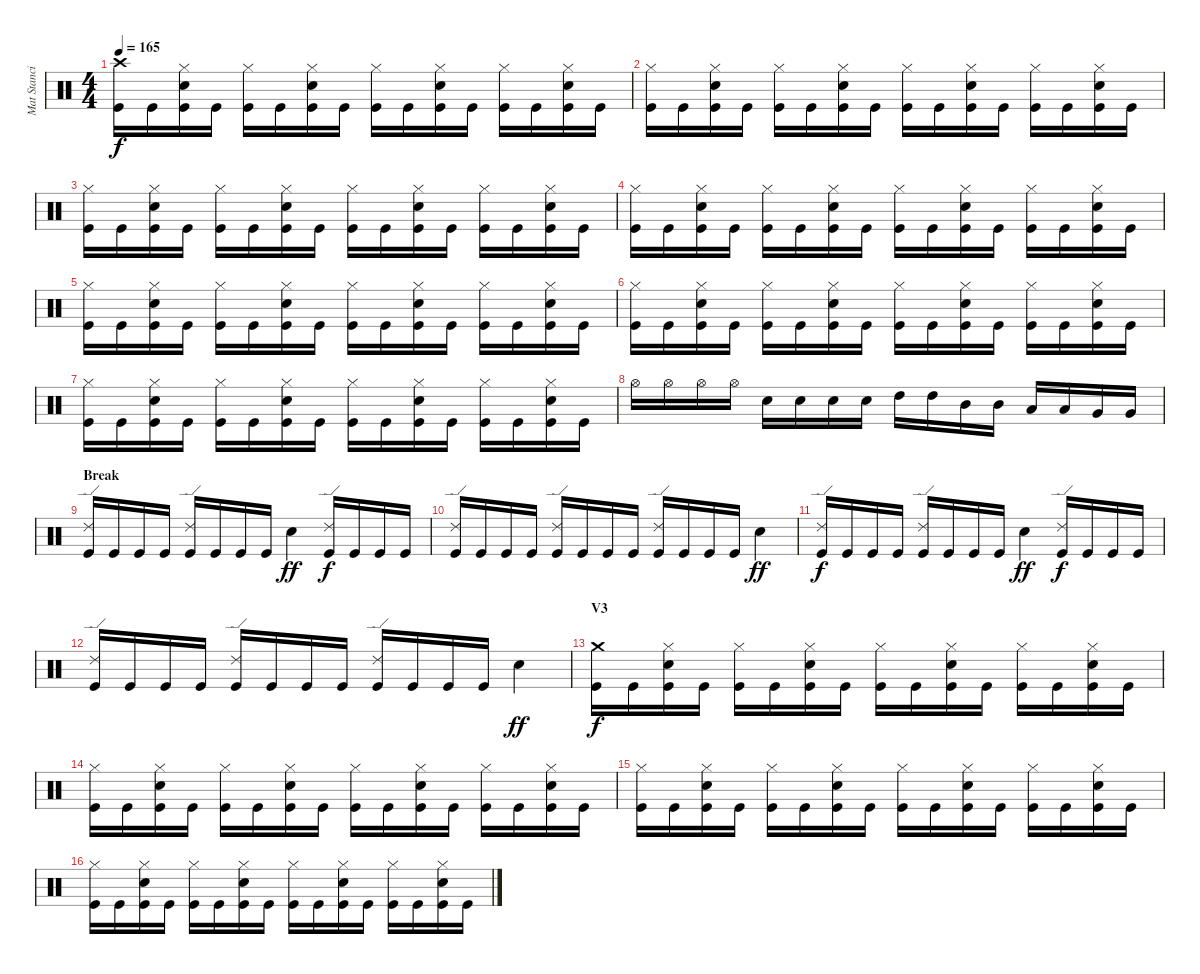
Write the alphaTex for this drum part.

\track ("Mat Stancioiu (Drums)" "Mat Stanci") {instrument percussion}
\staff {score}
\articulation defaults
\ts (4 4)
\tempo 165
\clef neutral
\ks c
("Crash high (hit)" "Kick (hit)").16{dy f} "Kick (hit)".16 ("Hi-Hat (closed)" "Electric Snare (hit)" "Kick (hit)").16 "Kick (hit)".16 ("Hi-Hat (closed)" "Kick (hit)").16 "Kick (hit)".16 ("Hi-Hat (closed)" "Electric Snare (hit)" "Kick (hit)").16 "Kick (hit)".16 ("Hi-Hat (closed)" "Kick (hit)").16 "Kick (hit)".16 ("Hi-Hat (closed)" "Electric Snare (hit)" "Kick (hit)").16 "Kick (hit)".16 ("Hi-Hat (closed)" "Kick (hit)").16 "Kick (hit)".16 ("Hi-Hat (closed)" "Electric Snare (hit)" "Kick (hit)").16 "Kick (hit)".16 |
("Hi-Hat (closed)" "Kick (hit)").16 "Kick (hit)".16 ("Hi-Hat (closed)" "Electric Snare (hit)" "Kick (hit)").16 "Kick (hit)".16 ("Hi-Hat (closed)" "Kick (hit)").16 "Kick (hit)".16 ("Hi-Hat (closed)" "Electric Snare (hit)" "Kick (hit)").16 "Kick (hit)".16 ("Hi-Hat (closed)" "Kick (hit)").16 "Kick (hit)".16 ("Hi-Hat (closed)" "Electric Snare (hit)" "Kick (hit)").16 "Kick (hit)".16 ("Hi-Hat (closed)" "Kick (hit)").16 "Kick (hit)".16 ("Hi-Hat (closed)" "Electric Snare (hit)" "Kick (hit)").16 "Kick (hit)".16 |
("Hi-Hat (closed)" "Kick (hit)").16 "Kick (hit)".16 ("Hi-Hat (closed)" "Electric Snare (hit)" "Kick (hit)").16 "Kick (hit)".16 ("Hi-Hat (closed)" "Kick (hit)").16 "Kick (hit)".16 ("Hi-Hat (closed)" "Electric Snare (hit)" "Kick (hit)").16 "Kick (hit)".16 ("Hi-Hat (closed)" "Kick (hit)").16 "Kick (hit)".16 ("Hi-Hat (closed)" "Electric Snare (hit)" "Kick (hit)").16 "Kick (hit)".16 ("Hi-Hat (closed)" "Kick (hit)").16 "Kick (hit)".16 ("Hi-Hat (closed)" "Electric Snare (hit)" "Kick (hit)").16 "Kick (hit)".16 |
("Hi-Hat (closed)" "Kick (hit)").16 "Kick (hit)".16 ("Hi-Hat (closed)" "Electric Snare (hit)" "Kick (hit)").16 "Kick (hit)".16 ("Hi-Hat (closed)" "Kick (hit)").16 "Kick (hit)".16 ("Hi-Hat (closed)" "Electric Snare (hit)" "Kick (hit)").16 "Kick (hit)".16 ("Hi-Hat (closed)" "Kick (hit)").16 "Kick (hit)".16 ("Hi-Hat (closed)" "Electric Snare (hit)" "Kick (hit)").16 "Kick (hit)".16 ("Hi-Hat (closed)" "Kick (hit)").16 "Kick (hit)".16 ("Hi-Hat (closed)" "Electric Snare (hit)" "Kick (hit)").16 "Kick (hit)".16 |
("Hi-Hat (closed)" "Kick (hit)").16 "Kick (hit)".16 ("Hi-Hat (closed)" "Electric Snare (hit)" "Kick (hit)").16 "Kick (hit)".16 ("Hi-Hat (closed)" "Kick (hit)").16 "Kick (hit)".16 ("Hi-Hat (closed)" "Electric Snare (hit)" "Kick (hit)").16 "Kick (hit)".16 ("Hi-Hat (closed)" "Kick (hit)").16 "Kick (hit)".16 ("Hi-Hat (closed)" "Electric Snare (hit)" "Kick (hit)").16 "Kick (hit)".16 ("Hi-Hat (closed)" "Kick (hit)").16 "Kick (hit)".16 ("Hi-Hat (closed)" "Electric Snare (hit)" "Kick (hit)").16 "Kick (hit)".16 |
("Hi-Hat (closed)" "Kick (hit)").16 "Kick (hit)".16 ("Hi-Hat (closed)" "Electric Snare (hit)" "Kick (hit)").16 "Kick (hit)".16 ("Hi-Hat (closed)" "Kick (hit)").16 "Kick (hit)".16 ("Hi-Hat (closed)" "Electric Snare (hit)" "Kick (hit)").16 "Kick (hit)".16 ("Hi-Hat (closed)" "Kick (hit)").16 "Kick (hit)".16 ("Hi-Hat (closed)" "Electric Snare (hit)" "Kick (hit)").16 "Kick (hit)".16 ("Hi-Hat (closed)" "Kick (hit)").16 "Kick (hit)".16 ("Hi-Hat (closed)" "Electric Snare (hit)" "Kick (hit)").16 "Kick (hit)".16 |
("Hi-Hat (closed)" "Kick (hit)").16 "Kick (hit)".16 ("Hi-Hat (closed)" "Electric Snare (hit)" "Kick (hit)").16 "Kick (hit)".16 ("Hi-Hat (closed)" "Kick (hit)").16 "Kick (hit)".16 ("Hi-Hat (closed)" "Electric Snare (hit)" "Kick (hit)").16 "Kick (hit)".16 ("Hi-Hat (closed)" "Kick (hit)").16 "Kick (hit)".16 ("Hi-Hat (closed)" "Electric Snare (hit)" "Kick (hit)").16 "Kick (hit)".16 ("Hi-Hat (closed)" "Kick (hit)").16 "Kick (hit)".16 ("Hi-Hat (closed)" "Electric Snare (hit)" "Kick (hit)").16 "Kick (hit)".16 |
"Hi-Hat (open)".16 "Hi-Hat (open)".16 "Hi-Hat (open)".16 "Hi-Hat (open)".16 "Electric Snare (hit)".16 "Electric Snare (hit)".16 "Electric Snare (hit)".16 "Electric Snare (hit)".16 "High Tom (hit)".16 "High Tom (hit)".16 "Mid Tom (hit)".16 "Mid Tom (hit)".16 "Low Tom (hit)".16 "Low Tom (hit)".16 "Very Low Tom (hit)".16 "Very Low Tom (hit)".16 |
\section ("" "Break")
("Ride (edge) 2" "Kick (hit)").16 "Kick (hit)".16 "Kick (hit)".16 "Kick (hit)".16 ("Ride (edge) 2" "Kick (hit)").16 "Kick (hit)".16 "Kick (hit)".16 "Kick (hit)".16 "Electric Snare (hit)".4{dy ff} ("Ride (edge) 2" "Kick (hit)").16{dy f} "Kick (hit)".16 "Kick (hit)".16 "Kick (hit)".16 |
("Ride (edge) 2" "Kick (hit)").16 "Kick (hit)".16 "Kick (hit)".16 "Kick (hit)".16 ("Ride (edge) 2" "Kick (hit)").16 "Kick (hit)".16 "Kick (hit)".16 "Kick (hit)".16 ("Ride (edge) 2" "Kick (hit)").16 "Kick (hit)".16 "Kick (hit)".16 "Kick (hit)".16 "Electric Snare (hit)".4{dy ff} |
("Ride (edge) 2" "Kick (hit)").16{dy f} "Kick (hit)".16 "Kick (hit)".16 "Kick (hit)".16 ("Ride (edge) 2" "Kick (hit)").16 "Kick (hit)".16 "Kick (hit)".16 "Kick (hit)".16 "Electric Snare (hit)".4{dy ff} ("Ride (edge) 2" "Kick (hit)").16{dy f} "Kick (hit)".16 "Kick (hit)".16 "Kick (hit)".16 |
("Ride (edge) 2" "Kick (hit)").16 "Kick (hit)".16 "Kick (hit)".16 "Kick (hit)".16 ("Ride (edge) 2" "Kick (hit)").16 "Kick (hit)".16 "Kick (hit)".16 "Kick (hit)".16 ("Ride (edge) 2" "Kick (hit)").16 "Kick (hit)".16 "Kick (hit)".16 "Kick (hit)".16 "Electric Snare (hit)".4{dy ff} |
\section ("" "V3")
("Crash medium (hit)" "Kick (hit)").16{dy f} "Kick (hit)".16 ("Hi-Hat (closed)" "Electric Snare (hit)" "Kick (hit)").16 "Kick (hit)".16 ("Hi-Hat (closed)" "Kick (hit)").16 "Kick (hit)".16 ("Hi-Hat (closed)" "Electric Snare (hit)" "Kick (hit)").16 "Kick (hit)".16 ("Hi-Hat (closed)" "Kick (hit)").16 "Kick (hit)".16 ("Hi-Hat (closed)" "Electric Snare (hit)" "Kick (hit)").16 "Kick (hit)".16 ("Hi-Hat (closed)" "Kick (hit)").16 "Kick (hit)".16 ("Hi-Hat (closed)" "Electric Snare (hit)" "Kick (hit)").16 "Kick (hit)".16 |
("Hi-Hat (closed)" "Kick (hit)").16 "Kick (hit)".16 ("Hi-Hat (closed)" "Electric Snare (hit)" "Kick (hit)").16 "Kick (hit)".16 ("Hi-Hat (closed)" "Kick (hit)").16 "Kick (hit)".16 ("Hi-Hat (closed)" "Electric Snare (hit)" "Kick (hit)").16 "Kick (hit)".16 ("Hi-Hat (closed)" "Kick (hit)").16 "Kick (hit)".16 ("Hi-Hat (closed)" "Electric Snare (hit)" "Kick (hit)").16 "Kick (hit)".16 ("Hi-Hat (closed)" "Kick (hit)").16 "Kick (hit)".16 ("Hi-Hat (closed)" "Electric Snare (hit)" "Kick (hit)").16 "Kick (hit)".16 |
("Hi-Hat (closed)" "Kick (hit)").16 "Kick (hit)".16 ("Hi-Hat (closed)" "Electric Snare (hit)" "Kick (hit)").16 "Kick (hit)".16 ("Hi-Hat (closed)" "Kick (hit)").16 "Kick (hit)".16 ("Hi-Hat (closed)" "Electric Snare (hit)" "Kick (hit)").16 "Kick (hit)".16 ("Hi-Hat (closed)" "Kick (hit)").16 "Kick (hit)".16 ("Hi-Hat (closed)" "Electric Snare (hit)" "Kick (hit)").16 "Kick (hit)".16 ("Hi-Hat (closed)" "Kick (hit)").16 "Kick (hit)".16 ("Hi-Hat (closed)" "Electric Snare (hit)" "Kick (hit)").16 "Kick (hit)".16 |
("Hi-Hat (closed)" "Kick (hit)").16 "Kick (hit)".16 ("Hi-Hat (closed)" "Electric Snare (hit)" "Kick (hit)").16 "Kick (hit)".16 ("Hi-Hat (closed)" "Kick (hit)").16 "Kick (hit)".16 ("Hi-Hat (closed)" "Electric Snare (hit)" "Kick (hit)").16 "Kick (hit)".16 ("Hi-Hat (closed)" "Kick (hit)").16 "Kick (hit)".16 ("Hi-Hat (closed)" "Electric Snare (hit)" "Kick (hit)").16 "Kick (hit)".16 ("Hi-Hat (closed)" "Kick (hit)").16 "Kick (hit)".16 ("Hi-Hat (closed)" "Electric Snare (hit)" "Kick (hit)").16 "Kick (hit)".16
